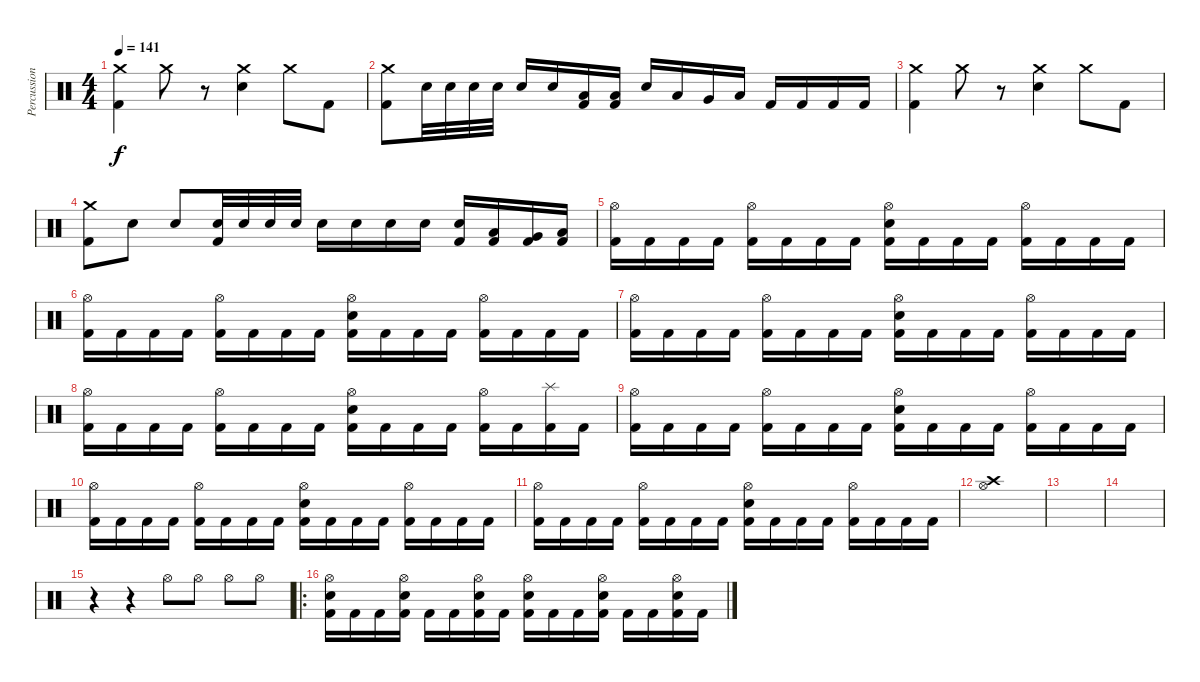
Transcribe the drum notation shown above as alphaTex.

\track ("Percussion" "Percussion") {instrument percussion}
\staff {score}
\articulation defaults
\ts (4 4)
\tempo 141
\clef neutral
\ks c
("Crash medium (hit)" "Kick (hit) 2").4{dy f} "Crash medium (hit)".8 r.8 ("Crash medium (hit)" "Electric Snare (hit)").4 "Crash medium (hit)".8 "Kick (hit) 2".8 |
("Crash medium (hit)" "Kick (hit) 2").8 "Electric Snare (hit)".32 "Electric Snare (hit)".32 "Electric Snare (hit)".32 "Electric Snare (hit)".32 "Electric Snare (hit)".16 "Electric Snare (hit)".16 ("Low Tom (hit)" "Kick (hit) 2").16 ("Low Floor Tom (hit)" "Kick (hit) 2").16 "Electric Snare (hit)".16 "Low Tom (hit)".16 "Very Low Tom (hit)".16 "Low Floor Tom (hit)".16 "Kick (hit) 2".16 "Kick (hit) 2".16 "Kick (hit) 2".16 "Kick (hit) 2".16 |
("Crash medium (hit)" "Kick (hit) 2").4 "Crash medium (hit)".8 r.8 ("Crash medium (hit)" "Electric Snare (hit)").4 "Crash medium (hit)".8 "Kick (hit) 2".8 |
("Crash medium (hit)" "Kick (hit) 2").8 "Electric Snare (hit)".8 "Electric Snare (hit)".8 ("Electric Snare (hit)" "Kick (hit) 2").32 "Electric Snare (hit)".32 "Electric Snare (hit)".32 "Electric Snare (hit)".32 "Electric Snare (hit)".16 "Electric Snare (hit)".16 "Electric Snare (hit)".16 "Electric Snare (hit)".16 ("Electric Snare (hit)" "Kick (hit) 2").16 ("Low Tom (hit)" "Kick (hit) 2").16 ("Very Low Tom (hit)" "Kick (hit) 2").16 ("Low Floor Tom (hit)" "Kick (hit) 2").16 |
("Hi-Hat (open)" "Kick (hit) 2").16 "Kick (hit) 2".16 "Kick (hit) 2".16 "Kick (hit) 2".16 ("Hi-Hat (open)" "Kick (hit) 2").16 "Kick (hit) 2".16 "Kick (hit) 2".16 "Kick (hit) 2".16 ("Hi-Hat (open)" "Electric Snare (hit)" "Kick (hit) 2").16 "Kick (hit) 2".16 "Kick (hit) 2".16 "Kick (hit) 2".16 ("Hi-Hat (open)" "Kick (hit) 2").16 "Kick (hit) 2".16 "Kick (hit) 2".16 "Kick (hit) 2".16 |
("Hi-Hat (open)" "Kick (hit) 2").16 "Kick (hit) 2".16 "Kick (hit) 2".16 "Kick (hit) 2".16 ("Hi-Hat (open)" "Kick (hit) 2").16 "Kick (hit) 2".16 "Kick (hit) 2".16 "Kick (hit) 2".16 ("Hi-Hat (open)" "Electric Snare (hit)" "Kick (hit) 2").16 "Kick (hit) 2".16 "Kick (hit) 2".16 "Kick (hit) 2".16 ("Hi-Hat (open)" "Kick (hit) 2").16 "Kick (hit) 2".16 "Kick (hit) 2".16 "Kick (hit) 2".16 |
("Hi-Hat (open)" "Kick (hit) 2").16 "Kick (hit) 2".16 "Kick (hit) 2".16 "Kick (hit) 2".16 ("Hi-Hat (open)" "Kick (hit) 2").16 "Kick (hit) 2".16 "Kick (hit) 2".16 "Kick (hit) 2".16 ("Hi-Hat (open)" "Electric Snare (hit)" "Kick (hit) 2").16 "Kick (hit) 2".16 "Kick (hit) 2".16 "Kick (hit) 2".16 ("Hi-Hat (open)" "Kick (hit) 2").16 "Kick (hit) 2".16 "Kick (hit) 2".16 "Kick (hit) 2".16 |
("Hi-Hat (open)" "Kick (hit) 2").16 "Kick (hit) 2".16 "Kick (hit) 2".16 "Kick (hit) 2".16 ("Hi-Hat (open)" "Kick (hit) 2").16 "Kick (hit) 2".16 "Kick (hit) 2".16 "Kick (hit) 2".16 ("Hi-Hat (open)" "Electric Snare (hit)" "Kick (hit) 2").16 "Kick (hit) 2".16 "Kick (hit) 2".16 "Kick (hit) 2".16 ("Hi-Hat (open)" "Kick (hit) 2").16 "Kick (hit) 2".16 ("Splash (hit)" "Kick (hit) 2").16 "Kick (hit) 2".16 |
("Hi-Hat (open)" "Kick (hit) 2").16 "Kick (hit) 2".16 "Kick (hit) 2".16 "Kick (hit) 2".16 ("Hi-Hat (open)" "Kick (hit) 2").16 "Kick (hit) 2".16 "Kick (hit) 2".16 "Kick (hit) 2".16 ("Hi-Hat (open)" "Electric Snare (hit)" "Kick (hit) 2").16 "Kick (hit) 2".16 "Kick (hit) 2".16 "Kick (hit) 2".16 ("Hi-Hat (open)" "Kick (hit) 2").16 "Kick (hit) 2".16 "Kick (hit) 2".16 "Kick (hit) 2".16 |
("Hi-Hat (open)" "Kick (hit) 2").16 "Kick (hit) 2".16 "Kick (hit) 2".16 "Kick (hit) 2".16 ("Hi-Hat (open)" "Kick (hit) 2").16 "Kick (hit) 2".16 "Kick (hit) 2".16 "Kick (hit) 2".16 ("Hi-Hat (open)" "Electric Snare (hit)" "Kick (hit) 2").16 "Kick (hit) 2".16 "Kick (hit) 2".16 "Kick (hit) 2".16 ("Hi-Hat (open)" "Kick (hit) 2").16 "Kick (hit) 2".16 "Kick (hit) 2".16 "Kick (hit) 2".16 |
("Hi-Hat (open)" "Kick (hit) 2").16 "Kick (hit) 2".16 "Kick (hit) 2".16 "Kick (hit) 2".16 ("Hi-Hat (open)" "Kick (hit) 2").16 "Kick (hit) 2".16 "Kick (hit) 2".16 "Kick (hit) 2".16 ("Hi-Hat (open)" "Electric Snare (hit)" "Kick (hit) 2").16 "Kick (hit) 2".16 "Kick (hit) 2".16 "Kick (hit) 2".16 ("Hi-Hat (open)" "Kick (hit) 2").16 "Kick (hit) 2".16 "Kick (hit) 2".16 "Kick (hit) 2".16 |
("Hi-Hat (open)" "Crash high (hit)").1 |
|
|
r.4 r.4 "Hi-Hat (open)".8 "Hi-Hat (open)".8 "Hi-Hat (open)".8 "Hi-Hat (open)".8 |
\ro
("Hi-Hat (open)" "Electric Snare (hit)" "Kick (hit) 2").16 "Kick (hit) 2".16 "Kick (hit) 2".16 ("Hi-Hat (open)" "Electric Snare (hit)" "Kick (hit) 2").16 "Kick (hit) 2".16 "Kick (hit) 2".16 ("Hi-Hat (open)" "Electric Snare (hit)" "Kick (hit) 2").16 "Kick (hit) 2".16 ("Hi-Hat (open)" "Electric Snare (hit)" "Kick (hit) 2").16 "Kick (hit) 2".16 "Kick (hit) 2".16 ("Hi-Hat (open)" "Electric Snare (hit)" "Kick (hit) 2").16 "Kick (hit) 2".16 "Kick (hit) 2".16 ("Hi-Hat (open)" "Electric Snare (hit)" "Kick (hit) 2").16 "Kick (hit) 2".16
